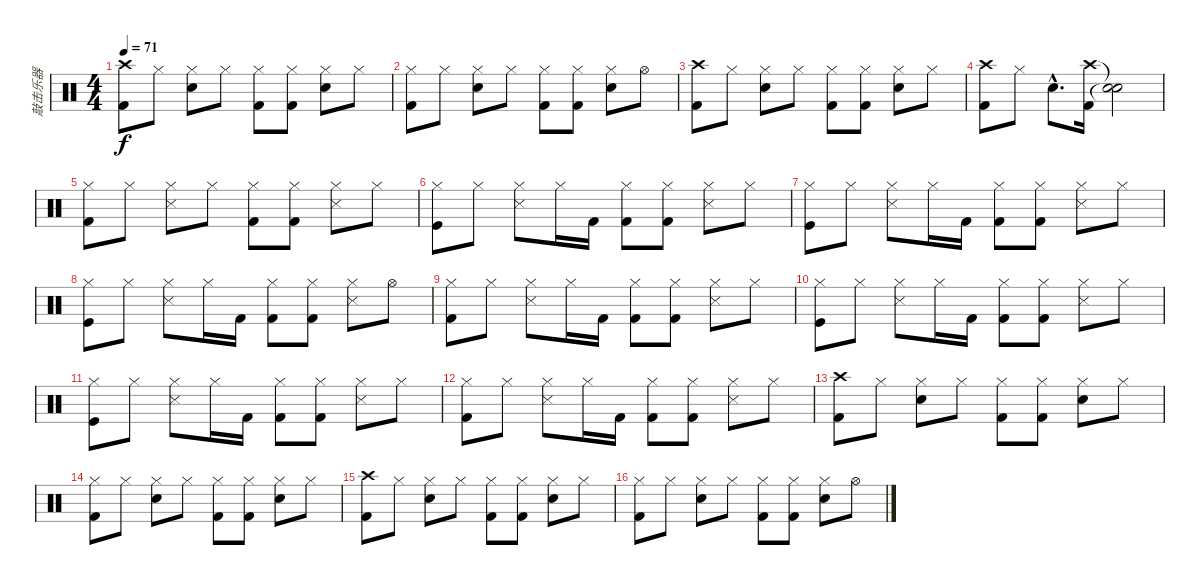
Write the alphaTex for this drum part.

\track ("敲击乐器" "敲击乐器") {instrument percussion}
\staff {score}
\articulation defaults
\ts (4 4)
\tempo 71
\clef neutral
\ks c
("Crash high (hit)" "Kick (hit) 2").8{dy f} "Hi-Hat (closed)".8 ("Hi-Hat (closed)" "Electric Snare (hit)").8 "Hi-Hat (closed)".8 ("Hi-Hat (closed)" "Kick (hit) 2").8 ("Hi-Hat (closed)" "Kick (hit) 2").8 ("Hi-Hat (closed)" "Electric Snare (hit)").8 "Hi-Hat (closed)".8 |
("Hi-Hat (closed)" "Kick (hit) 2").8 "Hi-Hat (closed)".8 ("Hi-Hat (closed)" "Electric Snare (hit)").8 "Hi-Hat (closed)".8 ("Hi-Hat (closed)" "Kick (hit) 2").8 ("Hi-Hat (closed)" "Kick (hit) 2").8 ("Hi-Hat (closed)" "Electric Snare (hit)").8 "Hi-Hat (open)".8 |
("Crash high (hit)" "Kick (hit) 2").8 "Hi-Hat (closed)".8 ("Hi-Hat (closed)" "Electric Snare (hit)").8 "Hi-Hat (closed)".8 ("Hi-Hat (closed)" "Kick (hit) 2").8 ("Hi-Hat (closed)" "Kick (hit) 2").8 ("Hi-Hat (closed)" "Electric Snare (hit)").8 "Hi-Hat (closed)".8 |
("Crash high (hit)" "Kick (hit) 2").8 "Hi-Hat (closed)".8 "Electric Snare (hit)"{hac}.8{d} ("Crash high (hit)" "Kick (hit) 2").16 ("Snare (hit)"{t} "Snare (hit)"{t}).2 |
("Hi-Hat (closed)" "Kick (hit) 2").8 "Hi-Hat (closed)".8 ("Hi-Hat (closed)" "Snare (side stick) 3").8 "Hi-Hat (closed)".8 ("Hi-Hat (closed)" "Kick (hit) 2").8 ("Hi-Hat (closed)" "Kick (hit) 2").8 ("Hi-Hat (closed)" "Snare (side stick) 3").8 "Hi-Hat (closed)".8 |
("Hi-Hat (closed)" "Kick (hit)").8 "Hi-Hat (closed)".8 ("Hi-Hat (closed)" "Snare (side stick) 3").8 "Hi-Hat (closed)".16 "Kick (hit) 2".16 ("Hi-Hat (closed)" "Kick (hit) 2").8 ("Hi-Hat (closed)" "Kick (hit) 2").8 ("Hi-Hat (closed)" "Snare (side stick) 3").8 "Hi-Hat (closed)".8 |
("Hi-Hat (closed)" "Kick (hit)").8 "Hi-Hat (closed)".8 ("Hi-Hat (closed)" "Snare (side stick) 3").8 "Hi-Hat (closed)".16 "Kick (hit) 2".16 ("Hi-Hat (closed)" "Kick (hit) 2").8 ("Hi-Hat (closed)" "Kick (hit) 2").8 ("Hi-Hat (closed)" "Snare (side stick) 3").8 "Hi-Hat (closed)".8 |
("Hi-Hat (closed)" "Kick (hit)").8 "Hi-Hat (closed)".8 ("Hi-Hat (closed)" "Snare (side stick) 3").8 "Hi-Hat (closed)".16 "Kick (hit) 2".16 ("Hi-Hat (closed)" "Kick (hit) 2").8 ("Hi-Hat (closed)" "Kick (hit) 2").8 ("Hi-Hat (closed)" "Snare (side stick) 3").8 "Hi-Hat (open)".8 |
("Hi-Hat (closed)" "Kick (hit) 2").8 "Hi-Hat (closed)".8 ("Hi-Hat (closed)" "Snare (side stick) 3").8 "Hi-Hat (closed)".16 "Kick (hit) 2".16 ("Hi-Hat (closed)" "Kick (hit) 2").8 ("Hi-Hat (closed)" "Kick (hit) 2").8 ("Hi-Hat (closed)" "Snare (side stick) 3").8 "Hi-Hat (closed)".8 |
("Hi-Hat (closed)" "Kick (hit)").8 "Hi-Hat (closed)".8 ("Hi-Hat (closed)" "Snare (side stick) 3").8 "Hi-Hat (closed)".16 "Kick (hit) 2".16 ("Hi-Hat (closed)" "Kick (hit) 2").8 ("Hi-Hat (closed)" "Kick (hit) 2").8 ("Hi-Hat (closed)" "Snare (side stick) 3").8 "Hi-Hat (closed)".8 |
("Hi-Hat (closed)" "Kick (hit)").8 "Hi-Hat (closed)".8 ("Hi-Hat (closed)" "Snare (side stick) 3").8 "Hi-Hat (closed)".16 "Kick (hit) 2".16 ("Hi-Hat (closed)" "Kick (hit) 2").8 ("Hi-Hat (closed)" "Kick (hit) 2").8 ("Hi-Hat (closed)" "Snare (side stick) 3").8 "Hi-Hat (closed)".8 |
("Hi-Hat (closed)" "Kick (hit) 2").8 "Hi-Hat (closed)".8 ("Hi-Hat (closed)" "Snare (side stick) 3").8 "Hi-Hat (closed)".16 "Kick (hit) 2".16 ("Hi-Hat (closed)" "Kick (hit) 2").8 ("Hi-Hat (closed)" "Kick (hit) 2").8 ("Hi-Hat (closed)" "Snare (side stick) 3").8 "Hi-Hat (closed)".8 |
("Crash high (hit)" "Kick (hit) 2").8 "Hi-Hat (closed)".8 ("Hi-Hat (closed)" "Electric Snare (hit)").8 "Hi-Hat (closed)".8 ("Hi-Hat (closed)" "Kick (hit) 2").8 ("Hi-Hat (closed)" "Kick (hit) 2").8 ("Hi-Hat (closed)" "Electric Snare (hit)").8 "Hi-Hat (closed)".8 |
("Hi-Hat (closed)" "Kick (hit) 2").8 "Hi-Hat (closed)".8 ("Hi-Hat (closed)" "Electric Snare (hit)").8 "Hi-Hat (closed)".8 ("Hi-Hat (closed)" "Kick (hit) 2").8 ("Hi-Hat (closed)" "Kick (hit) 2").8 ("Hi-Hat (closed)" "Electric Snare (hit)").8 "Hi-Hat (closed)".8 |
("Crash high (hit)" "Kick (hit) 2").8 "Hi-Hat (closed)".8 ("Hi-Hat (closed)" "Electric Snare (hit)").8 "Hi-Hat (closed)".8 ("Hi-Hat (closed)" "Kick (hit) 2").8 ("Hi-Hat (closed)" "Kick (hit) 2").8 ("Hi-Hat (closed)" "Electric Snare (hit)").8 "Hi-Hat (closed)".8 |
("Hi-Hat (closed)" "Kick (hit) 2").8 "Hi-Hat (closed)".8 ("Hi-Hat (closed)" "Electric Snare (hit)").8 "Hi-Hat (closed)".8 ("Hi-Hat (closed)" "Kick (hit) 2").8 ("Hi-Hat (closed)" "Kick (hit) 2").8 ("Hi-Hat (closed)" "Electric Snare (hit)").8 "Hi-Hat (open)".8
